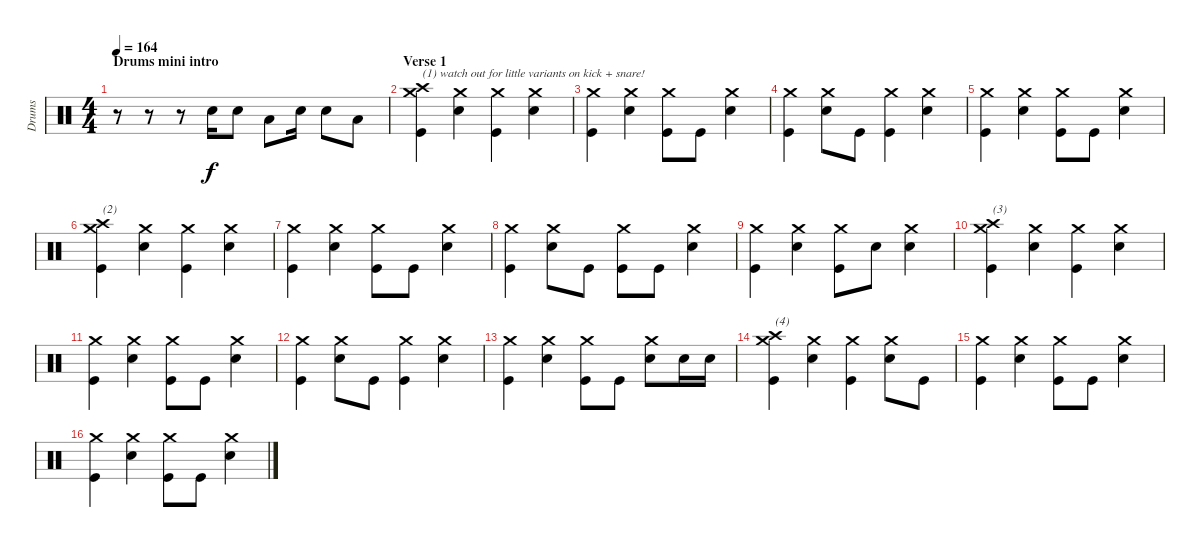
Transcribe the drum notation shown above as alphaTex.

\track ("Drums" "Drums") {instrument percussion}
\staff {score}
\articulation defaults
\ts (4 4)
\section ("" "Drums mini intro")
\tempo 164
\clef neutral
\ks c
r.8{dy f} r.8 r.8 "Electric Snare (hit)".16 "Electric Snare (hit)".8 "Low Tom (hit)".8 "Electric Snare (hit)".16 "Electric Snare (hit)".8 "Low Tom (hit)".8 |
\section ("" "Verse 1")
("Crash medium (hit)" "Crash high (hit)" "Kick (hit)").4{txt "(1) watch out for little variants on kick + snare!"} ("Crash medium (hit)" "Electric Snare (hit)").4 ("Crash medium (hit)" "Kick (hit)").4 ("Crash medium (hit)" "Electric Snare (hit)").4 |
("Crash medium (hit)" "Kick (hit)").4 ("Crash medium (hit)" "Electric Snare (hit)").4 ("Crash medium (hit)" "Kick (hit)").8 "Kick (hit)".8 ("Crash medium (hit)" "Electric Snare (hit)").4 |
("Crash medium (hit)" "Kick (hit)").4 ("Crash medium (hit)" "Electric Snare (hit)").8 "Kick (hit)".8 ("Crash medium (hit)" "Kick (hit)").4 ("Crash medium (hit)" "Electric Snare (hit)").4 |
("Crash medium (hit)" "Kick (hit)").4 ("Crash medium (hit)" "Electric Snare (hit)").4 ("Crash medium (hit)" "Kick (hit)").8 "Kick (hit)".8 ("Crash medium (hit)" "Electric Snare (hit)").4 |
("Crash medium (hit)" "Crash high (hit)" "Kick (hit)").4{txt "(2)"} ("Crash medium (hit)" "Electric Snare (hit)").4 ("Crash medium (hit)" "Kick (hit)").4 ("Crash medium (hit)" "Electric Snare (hit)").4 |
("Crash medium (hit)" "Kick (hit)").4 ("Crash medium (hit)" "Electric Snare (hit)").4 ("Crash medium (hit)" "Kick (hit)").8 "Kick (hit)".8 ("Crash medium (hit)" "Electric Snare (hit)").4 |
("Crash medium (hit)" "Kick (hit)").4 ("Crash medium (hit)" "Electric Snare (hit)").8 "Kick (hit)".8 ("Crash medium (hit)" "Kick (hit)").8 "Kick (hit)".8 ("Crash medium (hit)" "Electric Snare (hit)").4 |
("Crash medium (hit)" "Kick (hit)").4 ("Crash medium (hit)" "Electric Snare (hit)").4 ("Crash medium (hit)" "Kick (hit)").8 "Electric Snare (hit)".8 ("Crash medium (hit)" "Electric Snare (hit)").4 |
("Crash medium (hit)" "Crash high (hit)" "Kick (hit)").4{txt "(3)"} ("Crash medium (hit)" "Electric Snare (hit)").4 ("Crash medium (hit)" "Kick (hit)").4 ("Crash medium (hit)" "Electric Snare (hit)").4 |
("Crash medium (hit)" "Kick (hit)").4 ("Crash medium (hit)" "Electric Snare (hit)").4 ("Crash medium (hit)" "Kick (hit)").8 "Kick (hit)".8 ("Crash medium (hit)" "Electric Snare (hit)").4 |
("Crash medium (hit)" "Kick (hit)").4 ("Crash medium (hit)" "Electric Snare (hit)").8 "Kick (hit)".8 ("Crash medium (hit)" "Kick (hit)").4 ("Crash medium (hit)" "Electric Snare (hit)").4 |
("Crash medium (hit)" "Kick (hit)").4 ("Crash medium (hit)" "Electric Snare (hit)").4 ("Crash medium (hit)" "Kick (hit)").8 "Kick (hit)".8 ("Crash medium (hit)" "Electric Snare (hit)").8 "Electric Snare (hit)".16 "Electric Snare (hit)".16 |
("Crash medium (hit)" "Crash high (hit)" "Kick (hit)").4{txt "(4)"} ("Crash medium (hit)" "Electric Snare (hit)").4 ("Crash medium (hit)" "Kick (hit)").4 ("Crash medium (hit)" "Electric Snare (hit)").8 "Kick (hit)".8 |
("Crash medium (hit)" "Kick (hit)").4 ("Crash medium (hit)" "Electric Snare (hit)").4 ("Crash medium (hit)" "Kick (hit)").8 "Kick (hit)".8 ("Crash medium (hit)" "Electric Snare (hit)").4 |
("Crash medium (hit)" "Kick (hit)").4 ("Crash medium (hit)" "Electric Snare (hit)").4 ("Crash medium (hit)" "Kick (hit)").8 "Kick (hit)".8 ("Crash medium (hit)" "Electric Snare (hit)").4
